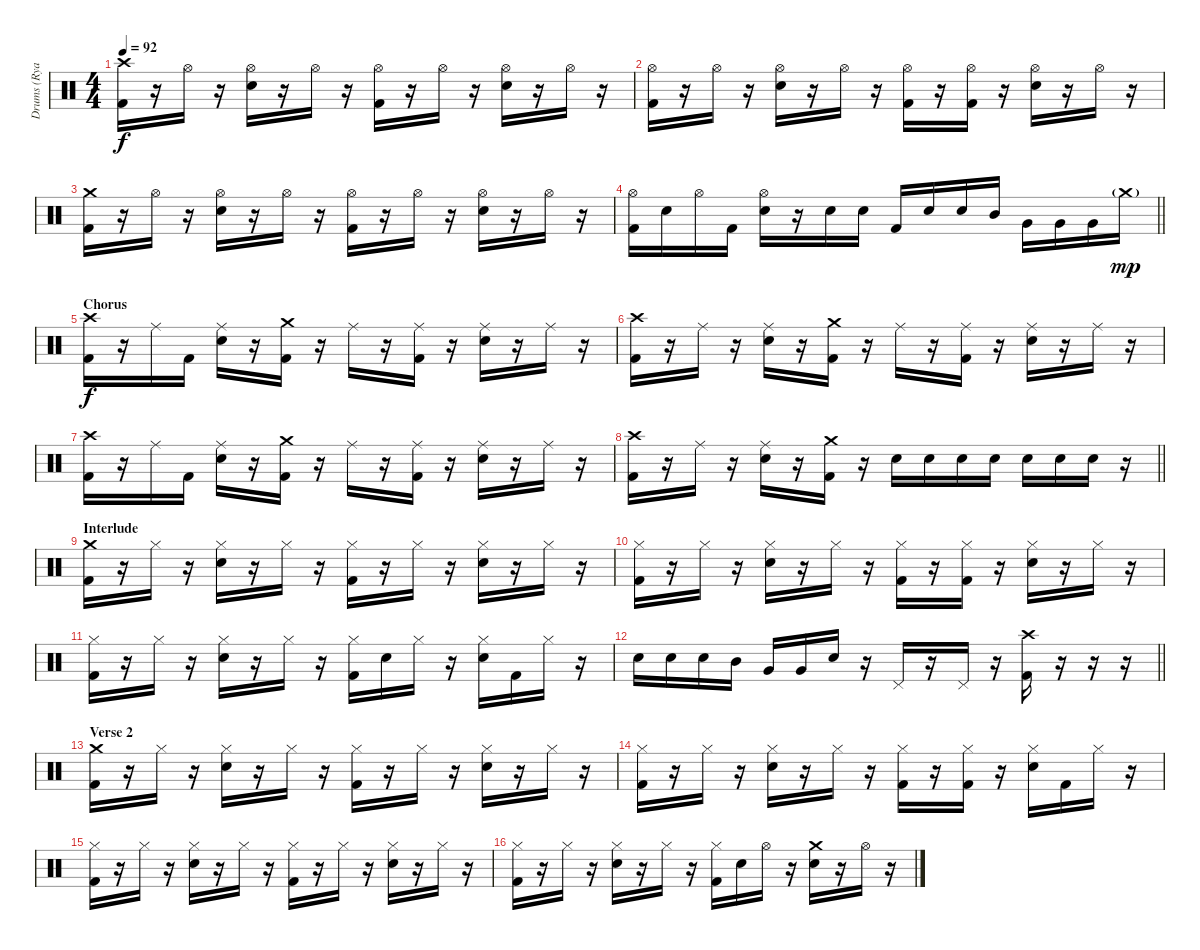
\track ("Drums (Ryan Vikedal)" "Drums (Rya") {instrument percussion}
\staff {score}
\articulation defaults
\ts (4 4)
\tempo 92
\clef neutral
\ks c
("Crash high (hit)" "Kick (hit) 2").16{dy f} r.16 "Hi-Hat (open)".16 r.16 ("Hi-Hat (open)" "Snare (hit) 2").16 r.16 "Hi-Hat (open)".16 r.16 ("Hi-Hat (open)" "Kick (hit) 2").16 r.16 "Hi-Hat (open)".16 r.16 ("Hi-Hat (open)" "Snare (hit) 2").16 r.16 "Hi-Hat (open)".16 r.16 |
("Hi-Hat (open)" "Kick (hit) 2").16 r.16 "Hi-Hat (open)".16 r.16 ("Hi-Hat (open)" "Snare (hit) 2").16 r.16 "Hi-Hat (open)".16 r.16 ("Hi-Hat (open)" "Kick (hit) 2").16 r.16 ("Hi-Hat (open)" "Kick (hit) 2").16 r.16 ("Hi-Hat (open)" "Snare (hit) 2").16 r.16 "Hi-Hat (open)".16 r.16 |
("Crash medium (hit)" "Kick (hit) 2").16 r.16 "Hi-Hat (open)".16 r.16 ("Hi-Hat (open)" "Snare (hit) 2").16 r.16 "Hi-Hat (open)".16 r.16 ("Hi-Hat (open)" "Kick (hit) 2").16 r.16 "Hi-Hat (open)".16 r.16 ("Hi-Hat (open)" "Snare (hit) 2").16 r.16 "Hi-Hat (open)".16 r.16 |
\barLineRight lightlight
("Hi-Hat (open)" "Kick (hit) 2").16 "Snare (hit) 2".16 "Hi-Hat (open)".16 "Kick (hit) 2".16 ("Hi-Hat (open)" "Snare (hit) 2").16 r.16 "Snare (hit) 2".16 "Snare (hit) 2".16 "Kick (hit) 2".16 "Snare (hit) 2".16 "Snare (hit) 2".16 "Mid Tom (hit)".16 "Very Low Tom (hit)".16 "Very Low Tom (hit)".16 "Very Low Tom (hit)".16 "Crash medium (hit)"{g}.16{dy mp} |
\section ("" "Chorus")
("Crash high (hit)" "Kick (hit) 2").16{dy f} r.16 "Ride (middle)".16 "Kick (hit) 2".16 ("Ride (middle)" "Snare (hit) 2").16 r.16 ("Crash medium (hit)" "Kick (hit) 2").16 r.16 "Ride (middle)".16 r.16 ("Ride (middle)" "Kick (hit) 2").16 r.16 ("Ride (middle)" "Snare (hit) 2").16 r.16 "Ride (middle)".16 r.16 |
("Crash high (hit)" "Kick (hit) 2").16 r.16 "Ride (middle)".16 r.16 ("Ride (middle)" "Snare (hit) 2").16 r.16 ("Crash medium (hit)" "Kick (hit) 2").16 r.16 "Ride (middle)".16 r.16 ("Ride (middle)" "Kick (hit) 2").16 r.16 ("Ride (middle)" "Snare (hit) 2").16 r.16 "Ride (middle)".16 r.16 |
("Crash high (hit)" "Kick (hit) 2").16 r.16 "Ride (middle)".16 "Kick (hit) 2".16 ("Ride (middle)" "Snare (hit) 2").16 r.16 ("Crash medium (hit)" "Kick (hit) 2").16 r.16 "Ride (middle)".16 r.16 ("Ride (middle)" "Kick (hit) 2").16 r.16 ("Ride (middle)" "Snare (hit) 2").16 r.16 "Ride (middle)".16 r.16 |
\barLineRight lightlight
("Crash high (hit)" "Kick (hit) 2").16 r.16 "Ride (middle)".16 r.16 ("Ride (middle)" "Snare (hit) 2").16 r.16 ("Crash medium (hit)" "Kick (hit) 2").16 r.16 "Snare (hit) 2".16 "Snare (hit) 2".16 "Snare (hit) 2".16 "Snare (hit) 2".16 "Snare (hit) 2".16 "Snare (hit) 2".16 "Snare (hit) 2".16 r.16 |
\section ("" "Interlude")
("Crash medium (hit)" "Kick (hit) 2").16 r.16 "Hi-Hat (closed)".16 r.16 ("Hi-Hat (closed)" "Snare (hit) 2").16 r.16 "Hi-Hat (closed)".16 r.16 ("Hi-Hat (closed)" "Kick (hit) 2").16 r.16 "Hi-Hat (closed)".16 r.16 ("Hi-Hat (closed)" "Snare (hit) 2").16 r.16 "Hi-Hat (closed)".16 r.16 |
("Hi-Hat (closed)" "Kick (hit) 2").16 r.16 "Hi-Hat (closed)".16 r.16 ("Hi-Hat (closed)" "Snare (hit) 2").16 r.16 "Hi-Hat (closed)".16 r.16 ("Hi-Hat (closed)" "Kick (hit) 2").16 r.16 ("Hi-Hat (closed)" "Kick (hit) 2").16 r.16 ("Hi-Hat (closed)" "Snare (hit) 2").16 r.16 "Hi-Hat (closed)".16 r.16 |
("Hi-Hat (closed)" "Kick (hit) 2").16 r.16 "Hi-Hat (closed)".16 r.16 ("Hi-Hat (closed)" "Snare (hit) 2").16 r.16 "Hi-Hat (closed)".16 r.16 ("Hi-Hat (closed)" "Kick (hit) 2").16 "Snare (hit) 2".16 "Hi-Hat (closed)".16 r.16 ("Hi-Hat (closed)" "Snare (hit) 2").16 "Kick (hit) 2".16 "Hi-Hat (closed)".16 r.16 |
\barLineRight lightlight "Snare (hit) 2".16 "Snare (hit) 2".16 "Snare (hit) 2".16 "Mid Tom (hit)".16 "Very Low Tom (hit)".16 "Very Low Tom (hit)".16 "Snare (hit) 2".16
r.16 "Pedal Hi-Hat (hit)".16 r.16 "Pedal Hi-Hat (hit)".16 r.16 ("Crash high (hit)" "Kick (hit) 2").16 r.16 r.16 r.16 |
\section ("" "Verse 2")
("Crash medium (hit)" "Kick (hit) 2").16 r.16 "Hi-Hat (closed)".16 r.16 ("Hi-Hat (closed)" "Snare (hit) 2").16 r.16 "Hi-Hat (closed)".16 r.16 ("Hi-Hat (closed)" "Kick (hit) 2").16 r.16 "Hi-Hat (closed)".16 r.16 ("Hi-Hat (closed)" "Snare (hit) 2").16 r.16 "Hi-Hat (closed)".16 r.16 |
("Hi-Hat (closed)" "Kick (hit) 2").16 r.16 "Hi-Hat (closed)".16 r.16 ("Hi-Hat (closed)" "Snare (hit) 2").16 r.16 "Hi-Hat (closed)".16 r.16 ("Hi-Hat (closed)" "Kick (hit) 2").16 r.16 ("Hi-Hat (closed)" "Kick (hit) 2").16 r.16 ("Hi-Hat (closed)" "Snare (hit) 2").16 "Kick (hit) 2".16 "Hi-Hat (closed)".16 r.16 |
("Hi-Hat (closed)" "Kick (hit) 2").16 r.16 "Hi-Hat (closed)".16 r.16 ("Hi-Hat (closed)" "Snare (hit) 2").16 r.16 "Hi-Hat (closed)".16 r.16 ("Hi-Hat (closed)" "Kick (hit) 2").16 r.16 "Hi-Hat (closed)".16 r.16 ("Hi-Hat (closed)" "Snare (hit) 2").16 r.16 "Hi-Hat (closed)".16 r.16 |
("Hi-Hat (closed)" "Kick (hit) 2").16 r.16 "Hi-Hat (closed)".16 r.16 ("Hi-Hat (closed)" "Snare (hit) 2").16 r.16 "Hi-Hat (closed)".16 r.16 ("Hi-Hat (closed)" "Kick (hit) 2").16 "Snare (hit) 2".16 "Hi-Hat (open)".16 r.16 ("Crash medium (hit)" "Snare (hit) 2").16 r.16 "Hi-Hat (open)".16 r.16
